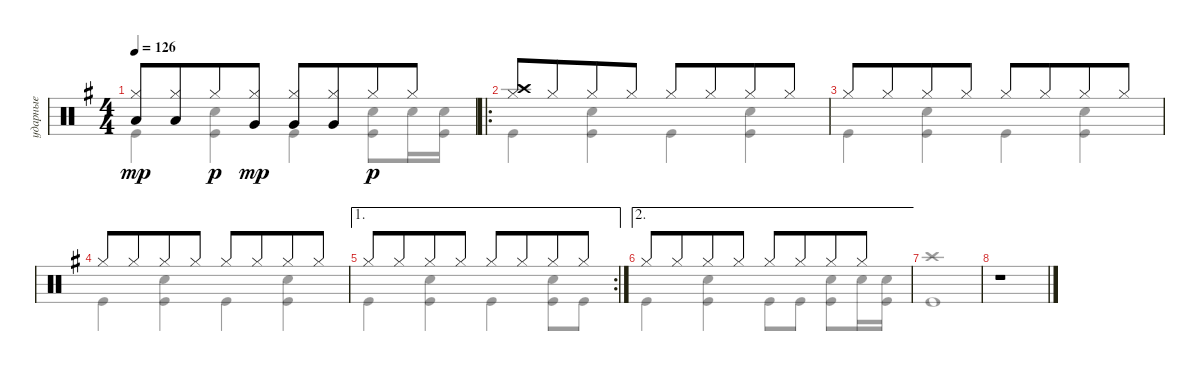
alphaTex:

\track ("ударные" "ударные") {instrument percussion}
\staff {score}
\articulation defaults
\voice
\ts (4 4)
\tempo 126
\clef neutral
\ks eminor
("Hi-Hat (closed)" "Low Tom (hit)").8{dy mp} ("Hi-Hat (closed)" "Low Tom (hit)").8{beam merge} "Hi-Hat (closed)".8{dy p} ("Hi-Hat (closed)" "Very Low Tom (hit)").8{dy mp} ("Hi-Hat (closed)" "Very Low Tom (hit)").8 ("Hi-Hat (closed)" "Very Low Tom (hit)").8{beam merge} "Hi-Hat (closed)".8{dy p} "Hi-Hat (closed)".8 |
\ro
("Hi-Hat (closed)" "Crash high (hit)").8 "Hi-Hat (closed)".8{beam merge} "Hi-Hat (closed)".8 "Hi-Hat (closed)".8 "Hi-Hat (closed)".8 "Hi-Hat (closed)".8{beam merge} "Hi-Hat (closed)".8 "Hi-Hat (closed)".8 |
"Hi-Hat (closed)".8 "Hi-Hat (closed)".8{beam merge} "Hi-Hat (closed)".8 "Hi-Hat (closed)".8 "Hi-Hat (closed)".8 "Hi-Hat (closed)".8{beam merge} "Hi-Hat (closed)".8 "Hi-Hat (closed)".8 |
"Hi-Hat (closed)".8 "Hi-Hat (closed)".8{beam merge} "Hi-Hat (closed)".8 "Hi-Hat (closed)".8 "Hi-Hat (closed)".8 "Hi-Hat (closed)".8{beam merge} "Hi-Hat (closed)".8 "Hi-Hat (closed)".8 |
\ae 1
\rc 2 "Hi-Hat (closed)".8 "Hi-Hat (closed)".8{beam merge} "Hi-Hat (closed)".8 "Hi-Hat (closed)".8 "Hi-Hat (closed)".8 "Hi-Hat (closed)".8{beam merge} "Hi-Hat (closed)".8 "Hi-Hat (closed)".8
|
\ae 2 "Hi-Hat (closed)".8 "Hi-Hat (closed)".8{beam merge} "Hi-Hat (closed)".8 "Hi-Hat (closed)".8 "Hi-Hat (closed)".8 "Hi-Hat (closed)".8{beam merge} "Hi-Hat (closed)".8 "Hi-Hat (closed)".8
|
|
r.1
\voice
\clef neutral
\ottava regular
\simile none
\ks eminor "Kick (hit)".4{dy mp}
("Snare (hit) 2" "Kick (hit)").4 "Kick (hit)".4 ("Snare (hit) 2" "Kick (hit)").8 "Snare (hit) 2".16 ("Snare (hit) 2" "Kick (hit)").16 |
"Kick (hit)".4 ("Snare (hit) 2" "Kick (hit)").4 "Kick (hit)".4 ("Snare (hit) 2" "Kick (hit)").4 |
"Kick (hit)".4 ("Snare (hit) 2" "Kick (hit)").4 "Kick (hit)".4 ("Snare (hit) 2" "Kick (hit)").4 |
"Kick (hit)".4 ("Snare (hit) 2" "Kick (hit)").4 "Kick (hit)".4 ("Snare (hit) 2" "Kick (hit)").4 |
"Kick (hit)".4 ("Snare (hit) 2" "Kick (hit)").4 "Kick (hit)".4 ("Snare (hit) 2" "Kick (hit)").8 "Kick (hit)".8 |
"Kick (hit)".4 ("Snare (hit) 2" "Kick (hit)").4 "Kick (hit)".8 "Kick (hit)".8 ("Snare (hit) 2" "Kick (hit)").8 "Snare (hit) 2".16 ("Snare (hit) 2" "Kick (hit)").16 |
("Crash high (hit)" "Kick (hit)").1 |
